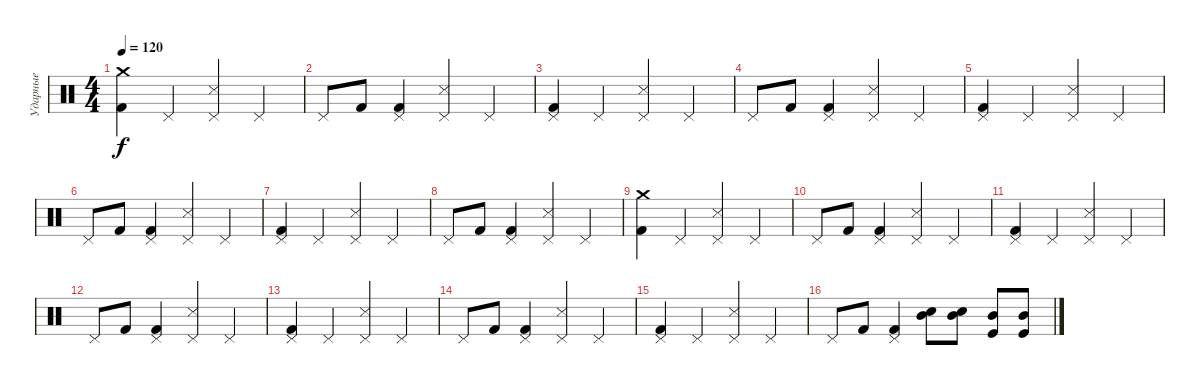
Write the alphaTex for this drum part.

\track ("Ударные" "Ударные") {instrument percussion}
\staff {score}
\articulation defaults
\ts (4 4)
\tempo 120
\clef neutral
\ks c
("Crash medium (hit)" "Kick (hit) 2").4{dy f} "Pedal Hi-Hat (hit)".4 ("Pedal Hi-Hat (hit)" "Snare (side stick) 3").4 "Pedal Hi-Hat (hit)".4 |
"Pedal Hi-Hat (hit)".8 "Kick (hit) 2".8 ("Pedal Hi-Hat (hit)" "Kick (hit) 2").4 ("Pedal Hi-Hat (hit)" "Snare (side stick) 3").4 "Pedal Hi-Hat (hit)".4 |
("Pedal Hi-Hat (hit)" "Kick (hit) 2").4 "Pedal Hi-Hat (hit)".4 ("Pedal Hi-Hat (hit)" "Snare (side stick) 3").4 "Pedal Hi-Hat (hit)".4 |
"Pedal Hi-Hat (hit)".8 "Kick (hit) 2".8 ("Pedal Hi-Hat (hit)" "Kick (hit) 2").4 ("Pedal Hi-Hat (hit)" "Snare (side stick) 3").4 "Pedal Hi-Hat (hit)".4 |
("Pedal Hi-Hat (hit)" "Kick (hit) 2").4 "Pedal Hi-Hat (hit)".4 ("Pedal Hi-Hat (hit)" "Snare (side stick) 3").4 "Pedal Hi-Hat (hit)".4 |
"Pedal Hi-Hat (hit)".8 "Kick (hit) 2".8 ("Pedal Hi-Hat (hit)" "Kick (hit) 2").4 ("Pedal Hi-Hat (hit)" "Snare (side stick) 3").4 "Pedal Hi-Hat (hit)".4 |
("Pedal Hi-Hat (hit)" "Kick (hit) 2").4 "Pedal Hi-Hat (hit)".4 ("Pedal Hi-Hat (hit)" "Snare (side stick) 3").4 "Pedal Hi-Hat (hit)".4 |
"Pedal Hi-Hat (hit)".8 "Kick (hit) 2".8 ("Pedal Hi-Hat (hit)" "Kick (hit) 2").4 ("Pedal Hi-Hat (hit)" "Snare (side stick) 3").4 "Pedal Hi-Hat (hit)".4 |
("Crash medium (hit)" "Kick (hit) 2").4 "Pedal Hi-Hat (hit)".4 ("Pedal Hi-Hat (hit)" "Snare (side stick) 3").4 "Pedal Hi-Hat (hit)".4 |
"Pedal Hi-Hat (hit)".8 "Kick (hit) 2".8 ("Pedal Hi-Hat (hit)" "Kick (hit) 2").4 ("Pedal Hi-Hat (hit)" "Snare (side stick) 3").4 "Pedal Hi-Hat (hit)".4 |
("Pedal Hi-Hat (hit)" "Kick (hit) 2").4 "Pedal Hi-Hat (hit)".4 ("Pedal Hi-Hat (hit)" "Snare (side stick) 3").4 "Pedal Hi-Hat (hit)".4 |
"Pedal Hi-Hat (hit)".8 "Kick (hit) 2".8 ("Pedal Hi-Hat (hit)" "Kick (hit) 2").4 ("Pedal Hi-Hat (hit)" "Snare (side stick) 3").4 "Pedal Hi-Hat (hit)".4 |
("Pedal Hi-Hat (hit)" "Kick (hit) 2").4 "Pedal Hi-Hat (hit)".4 ("Pedal Hi-Hat (hit)" "Snare (side stick) 3").4 "Pedal Hi-Hat (hit)".4 |
"Pedal Hi-Hat (hit)".8 "Kick (hit) 2".8 ("Pedal Hi-Hat (hit)" "Kick (hit) 2").4 ("Pedal Hi-Hat (hit)" "Snare (side stick) 3").4 "Pedal Hi-Hat (hit)".4 |
("Pedal Hi-Hat (hit)" "Kick (hit) 2").4 "Pedal Hi-Hat (hit)".4 ("Pedal Hi-Hat (hit)" "Snare (side stick) 3").4 "Pedal Hi-Hat (hit)".4 |
"Pedal Hi-Hat (hit)".8 "Kick (hit) 2".8 ("Pedal Hi-Hat (hit)" "Kick (hit) 2").4 ("Electric Snare (hit)" "Mid Tom (hit)").8 ("Electric Snare (hit)" "Mid Tom (hit)").8 ("Kick (hit)" "Mid Tom (hit)").8 ("Kick (hit)" "Mid Tom (hit)").8
